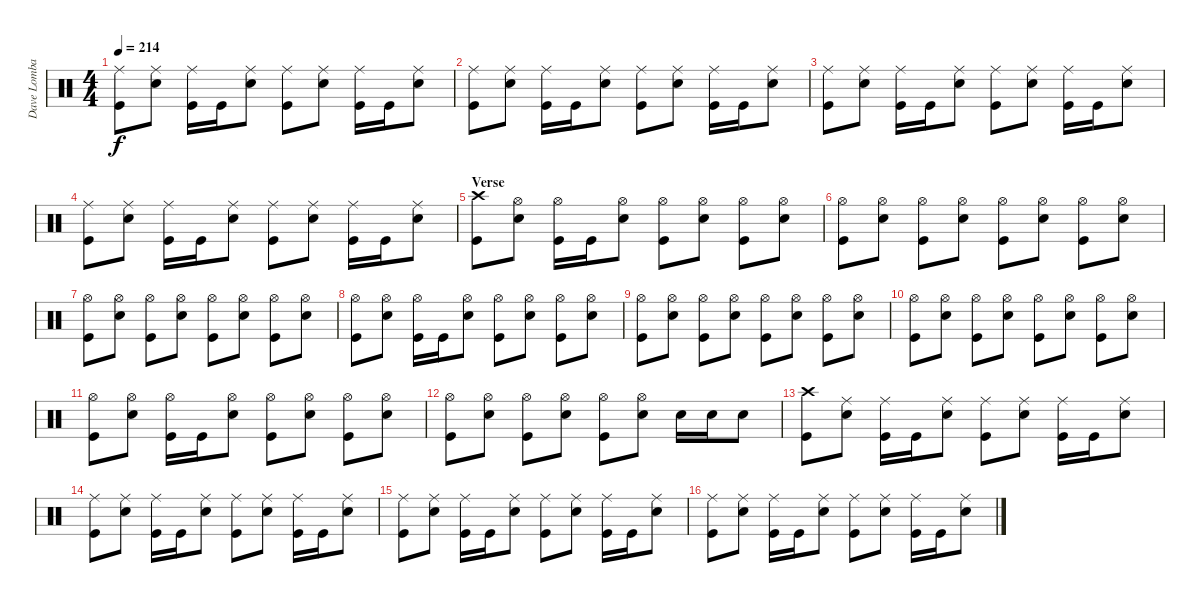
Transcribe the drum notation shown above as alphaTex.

\track ("Dave Lombardo" "Dave Lomba") {instrument percussion}
\staff {score}
\articulation defaults
\ts (4 4)
\tempo 214
\clef neutral
\ks c
("Ride (middle)" "Kick (hit)").8{dy f} ("Ride (middle)" "Snare (hit) 2").8 ("Ride (middle)" "Kick (hit)").16 "Kick (hit)".16 ("Ride (middle)" "Snare (hit) 2").8 ("Ride (middle)" "Kick (hit)").8 ("Ride (middle)" "Snare (hit) 2").8 ("Ride (middle)" "Kick (hit)").16 "Kick (hit)".16 ("Ride (middle)" "Snare (hit) 2").8 |
("Ride (middle)" "Kick (hit)").8 ("Ride (middle)" "Snare (hit) 2").8 ("Ride (middle)" "Kick (hit)").16 "Kick (hit)".16 ("Ride (middle)" "Snare (hit) 2").8 ("Ride (middle)" "Kick (hit)").8 ("Ride (middle)" "Snare (hit) 2").8 ("Ride (middle)" "Kick (hit)").16 "Kick (hit)".16 ("Ride (middle)" "Snare (hit) 2").8 |
("Ride (middle)" "Kick (hit)").8 ("Ride (middle)" "Snare (hit) 2").8 ("Ride (middle)" "Kick (hit)").16 "Kick (hit)".16 ("Ride (middle)" "Snare (hit) 2").8 ("Ride (middle)" "Kick (hit)").8 ("Ride (middle)" "Snare (hit) 2").8 ("Ride (middle)" "Kick (hit)").16 "Kick (hit)".16 ("Ride (middle)" "Snare (hit) 2").8 |
("Ride (middle)" "Kick (hit)").8 ("Ride (middle)" "Snare (hit) 2").8 ("Ride (middle)" "Kick (hit)").16 "Kick (hit)".16 ("Ride (middle)" "Snare (hit) 2").8 ("Ride (middle)" "Kick (hit)").8 ("Ride (middle)" "Snare (hit) 2").8 ("Ride (middle)" "Kick (hit)").16 "Kick (hit)".16 ("Ride (middle)" "Snare (hit) 2").8 |
\section ("" "Verse")
("Crash high (hit)" "Kick (hit)").8 ("Hi-Hat (open)" "Snare (hit) 2").8 ("Hi-Hat (open)" "Kick (hit)").16 "Kick (hit)".16 ("Hi-Hat (open)" "Snare (hit) 2").8 ("Hi-Hat (open)" "Kick (hit)").8 ("Hi-Hat (open)" "Snare (hit) 2").8 ("Hi-Hat (open)" "Kick (hit)").8 ("Hi-Hat (open)" "Snare (hit) 2").8 |
("Hi-Hat (open)" "Kick (hit)").8 ("Hi-Hat (open)" "Snare (hit) 2").8 ("Hi-Hat (open)" "Kick (hit)").8 ("Hi-Hat (open)" "Snare (hit) 2").8 ("Hi-Hat (open)" "Kick (hit)").8 ("Hi-Hat (open)" "Snare (hit) 2").8 ("Hi-Hat (open)" "Kick (hit)").8 ("Hi-Hat (open)" "Snare (hit) 2").8 |
("Hi-Hat (open)" "Kick (hit)").8 ("Hi-Hat (open)" "Snare (hit) 2").8 ("Hi-Hat (open)" "Kick (hit)").8 ("Hi-Hat (open)" "Snare (hit) 2").8 ("Hi-Hat (open)" "Kick (hit)").8 ("Hi-Hat (open)" "Snare (hit) 2").8 ("Hi-Hat (open)" "Kick (hit)").8 ("Hi-Hat (open)" "Snare (hit) 2").8 |
("Hi-Hat (open)" "Kick (hit)").8 ("Hi-Hat (open)" "Snare (hit) 2").8 ("Hi-Hat (open)" "Kick (hit)").16 "Kick (hit)".16 ("Hi-Hat (open)" "Snare (hit) 2").8 ("Hi-Hat (open)" "Kick (hit)").8 ("Hi-Hat (open)" "Snare (hit) 2").8 ("Hi-Hat (open)" "Kick (hit)").8 ("Hi-Hat (open)" "Snare (hit) 2").8 |
("Hi-Hat (open)" "Kick (hit)").8 ("Hi-Hat (open)" "Snare (hit) 2").8 ("Hi-Hat (open)" "Kick (hit)").8 ("Hi-Hat (open)" "Snare (hit) 2").8 ("Hi-Hat (open)" "Kick (hit)").8 ("Hi-Hat (open)" "Snare (hit) 2").8 ("Hi-Hat (open)" "Kick (hit)").8 ("Hi-Hat (open)" "Snare (hit) 2").8 |
("Hi-Hat (open)" "Kick (hit)").8 ("Hi-Hat (open)" "Snare (hit) 2").8 ("Hi-Hat (open)" "Kick (hit)").8 ("Hi-Hat (open)" "Snare (hit) 2").8 ("Hi-Hat (open)" "Kick (hit)").8 ("Hi-Hat (open)" "Snare (hit) 2").8 ("Hi-Hat (open)" "Kick (hit)").8 ("Hi-Hat (open)" "Snare (hit) 2").8 |
("Hi-Hat (open)" "Kick (hit)").8 ("Hi-Hat (open)" "Snare (hit) 2").8 ("Hi-Hat (open)" "Kick (hit)").16 "Kick (hit)".16 ("Hi-Hat (open)" "Snare (hit) 2").8 ("Hi-Hat (open)" "Kick (hit)").8 ("Hi-Hat (open)" "Snare (hit) 2").8 ("Hi-Hat (open)" "Kick (hit)").8 ("Hi-Hat (open)" "Snare (hit) 2").8 |
("Hi-Hat (open)" "Kick (hit)").8 ("Hi-Hat (open)" "Snare (hit) 2").8 ("Hi-Hat (open)" "Kick (hit)").8 ("Hi-Hat (open)" "Snare (hit) 2").8 ("Hi-Hat (open)" "Kick (hit)").8 ("Hi-Hat (open)" "Snare (hit) 2").8 "Snare (hit) 2".16 "Snare (hit) 2".16 "Snare (hit) 2".8 |
("Crash high (hit)" "Kick (hit)").8 ("Ride (middle)" "Snare (hit) 2").8 ("Ride (middle)" "Kick (hit)").16 "Kick (hit)".16 ("Ride (middle)" "Snare (hit) 2").8 ("Ride (middle)" "Kick (hit)").8 ("Ride (middle)" "Snare (hit) 2").8 ("Ride (middle)" "Kick (hit)").16 "Kick (hit)".16 ("Ride (middle)" "Snare (hit) 2").8 |
("Ride (middle)" "Kick (hit)").8 ("Ride (middle)" "Snare (hit) 2").8 ("Ride (middle)" "Kick (hit)").16 "Kick (hit)".16 ("Ride (middle)" "Snare (hit) 2").8 ("Ride (middle)" "Kick (hit)").8 ("Ride (middle)" "Snare (hit) 2").8 ("Ride (middle)" "Kick (hit)").16 "Kick (hit)".16 ("Ride (middle)" "Snare (hit) 2").8 |
("Ride (middle)" "Kick (hit)").8 ("Ride (middle)" "Snare (hit) 2").8 ("Ride (middle)" "Kick (hit)").16 "Kick (hit)".16 ("Ride (middle)" "Snare (hit) 2").8 ("Ride (middle)" "Kick (hit)").8 ("Ride (middle)" "Snare (hit) 2").8 ("Ride (middle)" "Kick (hit)").16 "Kick (hit)".16 ("Ride (middle)" "Snare (hit) 2").8 |
("Ride (middle)" "Kick (hit)").8 ("Ride (middle)" "Snare (hit) 2").8 ("Ride (middle)" "Kick (hit)").16 "Kick (hit)".16 ("Ride (middle)" "Snare (hit) 2").8 ("Ride (middle)" "Kick (hit)").8 ("Ride (middle)" "Snare (hit) 2").8 ("Ride (middle)" "Kick (hit)").16 "Kick (hit)".16 ("Ride (middle)" "Snare (hit) 2").8
